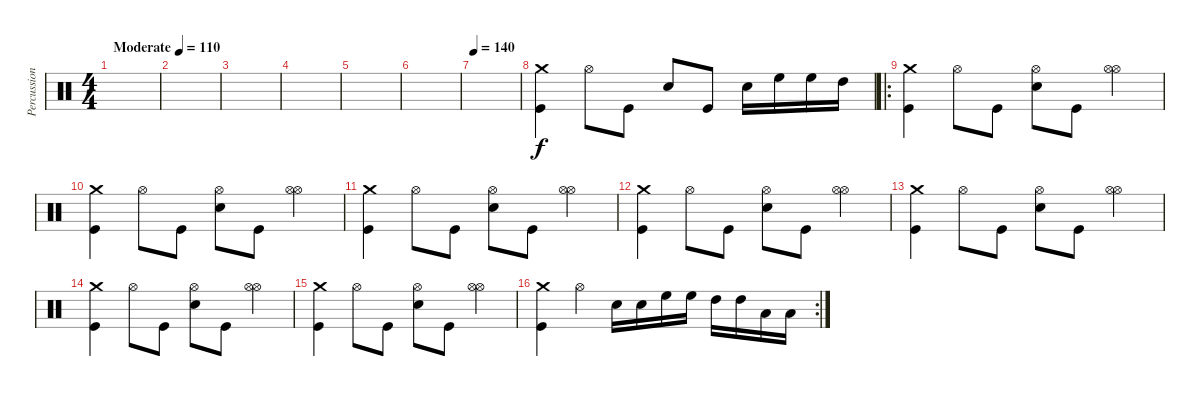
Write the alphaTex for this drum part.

\track ("Percussion" "Percussion") {instrument percussion}
\staff {score}
\articulation defaults
\ts (4 4)
\tempo (110 "Moderate")
\clef neutral
\ks c
|
|
|
|
|
|
\tempo 140
|
("Crash medium (hit)" "Kick (hit)").4 "Hi-Hat (open)".8 "Kick (hit)".8 "Snare (hit) 2".8 "Kick (hit)".8 "Snare (hit) 2".16 "High Floor Tom (hit)".16 "High Floor Tom (hit)".16 "High Tom (hit)".16 |
\ro
("Crash medium (hit)" "Kick (hit)").4 "Hi-Hat (open)".8 "Kick (hit)".8 ("Hi-Hat (open)" "Snare (hit) 2").8 "Kick (hit)".8 ("Hi-Hat (open)" "Hi-Hat (open)").4 |
("Crash medium (hit)" "Kick (hit)").4 "Hi-Hat (open)".8 "Kick (hit)".8 ("Hi-Hat (open)" "Snare (hit) 2").8 "Kick (hit)".8 ("Hi-Hat (open)" "Hi-Hat (open)").4 |
("Crash medium (hit)" "Kick (hit)").4 "Hi-Hat (open)".8 "Kick (hit)".8 ("Hi-Hat (open)" "Snare (hit) 2").8 "Kick (hit)".8 ("Hi-Hat (open)" "Hi-Hat (open)").4 |
("Crash medium (hit)" "Kick (hit)").4 "Hi-Hat (open)".8 "Kick (hit)".8 ("Hi-Hat (open)" "Snare (hit) 2").8 "Kick (hit)".8 ("Hi-Hat (open)" "Hi-Hat (open)").4 |
("Crash medium (hit)" "Kick (hit)").4 "Hi-Hat (open)".8 "Kick (hit)".8 ("Hi-Hat (open)" "Snare (hit) 2").8 "Kick (hit)".8 ("Hi-Hat (open)" "Hi-Hat (open)").4 |
("Crash medium (hit)" "Kick (hit)").4 "Hi-Hat (open)".8 "Kick (hit)".8 ("Hi-Hat (open)" "Snare (hit) 2").8 "Kick (hit)".8 ("Hi-Hat (open)" "Hi-Hat (open)").4 |
("Crash medium (hit)" "Kick (hit)").4 "Hi-Hat (open)".8 "Kick (hit)".8 ("Hi-Hat (open)" "Snare (hit) 2").8 "Kick (hit)".8 ("Hi-Hat (open)" "Hi-Hat (open)").4 |
\rc 2
("Crash medium (hit)" "Kick (hit)").4 "Hi-Hat (open)".4 "Snare (hit) 2".16 "Snare (hit) 2".16 "High Floor Tom (hit)".16 "High Floor Tom (hit)".16 "High Tom (hit)".16 "High Tom (hit)".16 "Low Tom (hit)".16 "Low Tom (hit)".16
